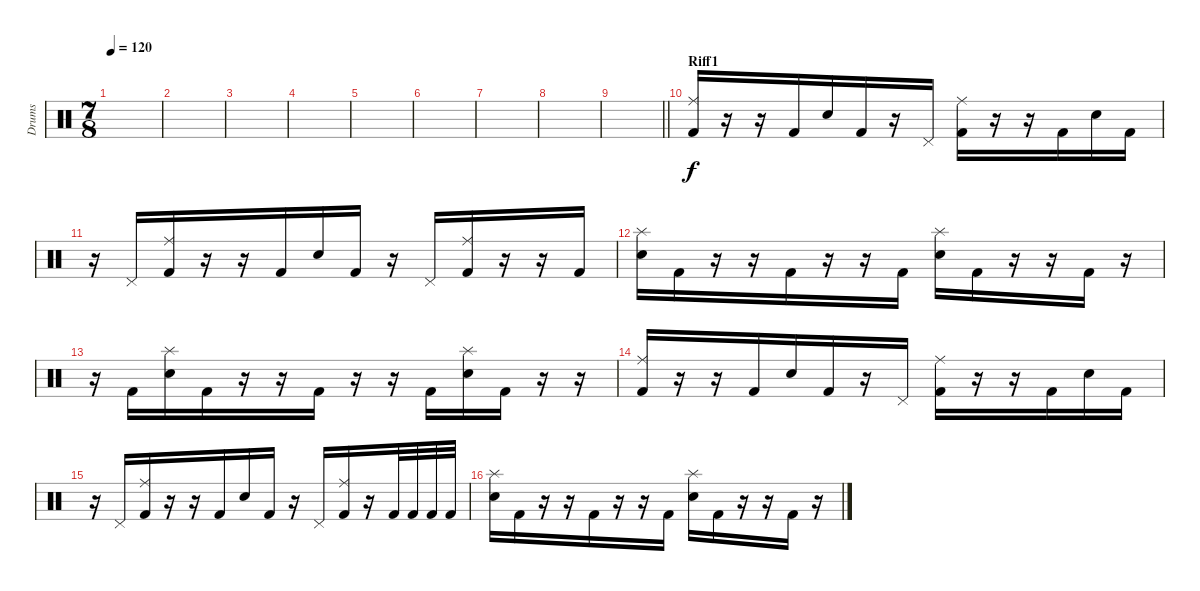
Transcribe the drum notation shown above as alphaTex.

\track ("Drums" "Drums") {instrument percussion}
\staff {score}
\articulation defaults
\ts (7 8)
\tempo 120
\clef neutral
\ks c
|
|
|
|
|
|
|
|
\barLineRight lightlight
|
\section ("" "Riff1")
("Ride (middle)" "Kick (hit) 2").16 r.16 r.16 "Kick (hit) 2".16 "Snare (hit) 2".16 "Kick (hit) 2".16 r.16 "Pedal Hi-Hat (hit)".16 ("Ride (middle)" "Kick (hit) 2").16 r.16 r.16 "Kick (hit) 2".16 "Snare (hit) 2".16 "Kick (hit) 2".16 |
r.16 "Pedal Hi-Hat (hit)".16 ("Ride (middle)" "Kick (hit) 2").16 r.16 r.16 "Kick (hit) 2".16 "Snare (hit) 2".16 "Kick (hit) 2".16 r.16 "Pedal Hi-Hat (hit)".16 ("Ride (middle)" "Kick (hit) 2").16 r.16 r.16 "Kick (hit) 2".16 |
("Splash (hit)" "Snare (hit) 2").16 "Kick (hit) 2".16 r.16 r.16 "Kick (hit) 2".16 r.16 r.16 "Kick (hit) 2".16 ("Splash (hit)" "Snare (hit) 2").16 "Kick (hit) 2".16 r.16 r.16 "Kick (hit) 2".16 r.16 |
r.16 "Kick (hit) 2".16 ("Splash (hit)" "Snare (hit) 2").16 "Kick (hit) 2".16 r.16 r.16 "Kick (hit) 2".16 r.16 r.16 "Kick (hit) 2".16 ("Splash (hit)" "Snare (hit) 2").16 "Kick (hit) 2".16 r.16 r.16 |
("Ride (middle)" "Kick (hit) 2").16 r.16 r.16 "Kick (hit) 2".16 "Snare (hit) 2".16 "Kick (hit) 2".16 r.16 "Pedal Hi-Hat (hit)".16 ("Ride (middle)" "Kick (hit) 2").16 r.16 r.16 "Kick (hit) 2".16 "Snare (hit) 2".16 "Kick (hit) 2".16 |
r.16 "Pedal Hi-Hat (hit)".16 ("Ride (middle)" "Kick (hit) 2").16 r.16 r.16 "Kick (hit) 2".16 "Snare (hit) 2".16 "Kick (hit) 2".16 r.16 "Pedal Hi-Hat (hit)".16 ("Ride (middle)" "Kick (hit) 2").16 r.16 "Kick (hit) 2".32 "Kick (hit) 2".32 "Kick (hit) 2".32 "Kick (hit) 2".32 |
("Splash (hit)" "Snare (hit) 2").16 "Kick (hit) 2".16 r.16 r.16 "Kick (hit) 2".16 r.16 r.16 "Kick (hit) 2".16 ("Splash (hit)" "Snare (hit) 2").16 "Kick (hit) 2".16 r.16 r.16 "Kick (hit) 2".16 r.16
